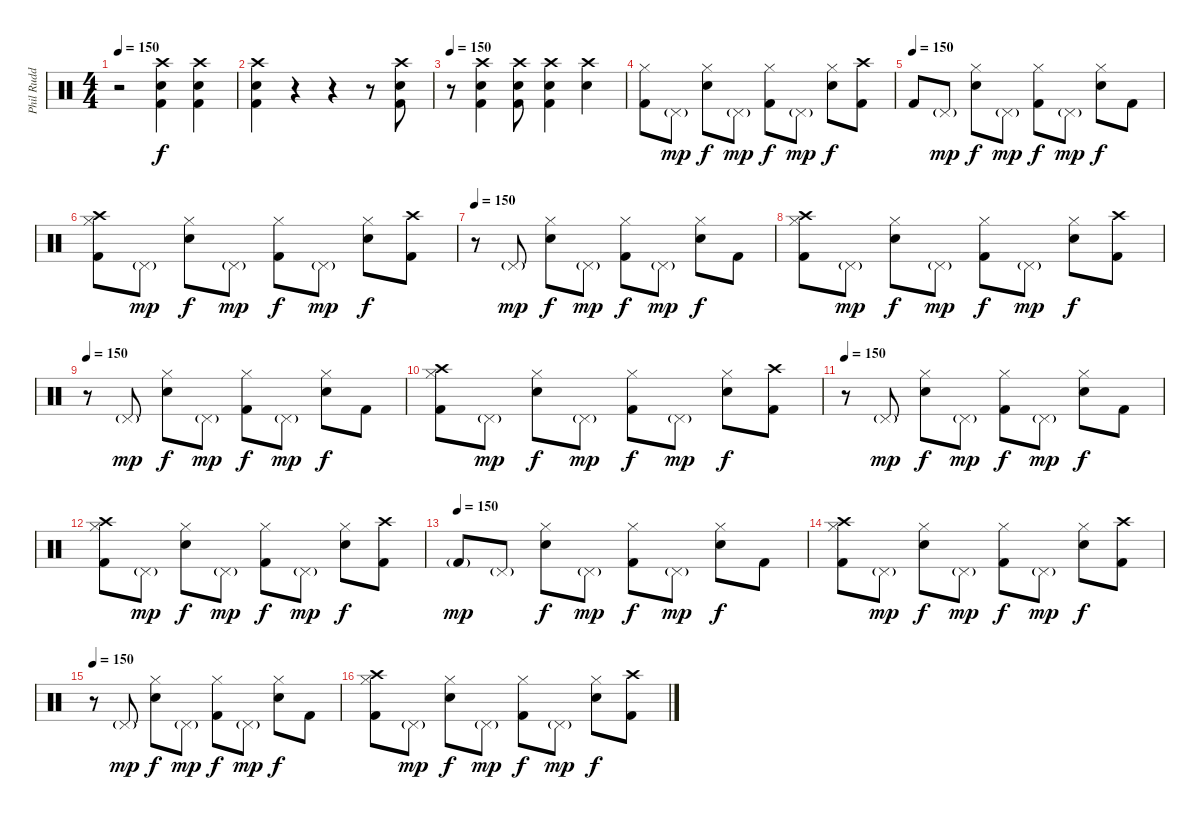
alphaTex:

\track ("Phil Rudd" "Phil Rudd") {instrument percussion}
\staff {score}
\articulation defaults
\ts (4 4)
\tempo 150
\clef neutral
\ks c
r.2{dy f} ("Crash high (hit)" "Snare (hit) 2" "Kick (hit) 2").4 ("Crash high (hit)" "Snare (hit) 2" "Kick (hit) 2").4 |
("Crash high (hit)" "Kick (hit) 2" "Snare (hit) 2").4 r.4 r.4 r.8 ("Kick (hit) 2" "Snare (hit) 2" "Crash high (hit)").8 |
\tempo 150
r.8 ("Crash high (hit)" "Snare (hit) 2" "Kick (hit) 2").4 ("Crash high (hit)" "Snare (hit) 2" "Kick (hit) 2").8 ("Crash high (hit)" "Snare (hit) 2" "Kick (hit) 2").4 ("Crash high (hit)" "Snare (hit) 2").4 |
("Kick (hit) 2" "Hi-Hat (closed)").8 "Pedal Hi-Hat (hit)"{g}.8{dy mp} ("Snare (hit) 2" "Hi-Hat (closed)").8{dy f} "Pedal Hi-Hat (hit)"{g}.8{dy mp} ("Kick (hit) 2" "Hi-Hat (closed)").8{dy f} "Pedal Hi-Hat (hit)"{g}.8{dy mp} ("Hi-Hat (closed)" "Snare (hit) 2").8{dy f} ("Crash high (hit)" "Kick (hit) 2").8 |
\tempo (150)
"Kick (hit) 2".8 "Pedal Hi-Hat (hit)"{g}.8{dy mp} ("Hi-Hat (closed)" "Snare (hit) 2").8{dy f} "Pedal Hi-Hat (hit)"{g}.8{dy mp} ("Hi-Hat (closed)" "Kick (hit) 2").8{dy f} "Pedal Hi-Hat (hit)"{g}.8{dy mp} ("Hi-Hat (closed)" "Snare (hit) 2").8{dy f} "Kick (hit) 2".8 |
("Crash high (hit)" "Kick (hit) 2" "Hi-Hat (closed)").8 "Pedal Hi-Hat (hit)"{g}.8{dy mp} ("Snare (hit) 2" "Hi-Hat (closed)").8{dy f} "Pedal Hi-Hat (hit)"{g}.8{dy mp} ("Kick (hit) 2" "Hi-Hat (closed)").8{dy f} "Pedal Hi-Hat (hit)"{g}.8{dy mp} ("Hi-Hat (closed)" "Snare (hit) 2").8{dy f} ("Crash high (hit)" "Kick (hit) 2").8 |
\tempo 150
r.8 "Pedal Hi-Hat (hit)"{g}.8{dy mp} ("Hi-Hat (closed)" "Snare (hit) 2").8{dy f} "Pedal Hi-Hat (hit)"{g}.8{dy mp} ("Hi-Hat (closed)" "Kick (hit) 2").8{dy f} "Pedal Hi-Hat (hit)"{g}.8{dy mp} ("Hi-Hat (closed)" "Snare (hit) 2").8{dy f} "Kick (hit) 2".8 |
("Crash high (hit)" "Kick (hit) 2" "Hi-Hat (closed)").8 "Pedal Hi-Hat (hit)"{g}.8{dy mp} ("Snare (hit) 2" "Hi-Hat (closed)").8{dy f} "Pedal Hi-Hat (hit)"{g}.8{dy mp} ("Kick (hit) 2" "Hi-Hat (closed)").8{dy f} "Pedal Hi-Hat (hit)"{g}.8{dy mp} ("Hi-Hat (closed)" "Snare (hit) 2").8{dy f} ("Crash high (hit)" "Kick (hit) 2").8 |
\tempo 150
r.8 "Pedal Hi-Hat (hit)"{g}.8{dy mp} ("Hi-Hat (closed)" "Snare (hit) 2").8{dy f} "Pedal Hi-Hat (hit)"{g}.8{dy mp} ("Hi-Hat (closed)" "Kick (hit) 2").8{dy f} "Pedal Hi-Hat (hit)"{g}.8{dy mp} ("Hi-Hat (closed)" "Snare (hit) 2").8{dy f} "Kick (hit) 2".8 |
("Crash high (hit)" "Kick (hit) 2" "Hi-Hat (closed)").8 "Pedal Hi-Hat (hit)"{g}.8{dy mp} ("Snare (hit) 2" "Hi-Hat (closed)").8{dy f} "Pedal Hi-Hat (hit)"{g}.8{dy mp} ("Kick (hit) 2" "Hi-Hat (closed)").8{dy f} "Pedal Hi-Hat (hit)"{g}.8{dy mp} ("Hi-Hat (closed)" "Snare (hit) 2").8{dy f} ("Crash high (hit)" "Kick (hit) 2").8 |
\tempo 150
r.8 "Pedal Hi-Hat (hit)"{g}.8{dy mp} ("Hi-Hat (closed)" "Snare (hit) 2").8{dy f} "Pedal Hi-Hat (hit)"{g}.8{dy mp} ("Hi-Hat (closed)" "Kick (hit) 2").8{dy f} "Pedal Hi-Hat (hit)"{g}.8{dy mp} ("Hi-Hat (closed)" "Snare (hit) 2").8{dy f} "Kick (hit) 2".8 |
("Crash high (hit)" "Kick (hit) 2" "Hi-Hat (closed)").8 "Pedal Hi-Hat (hit)"{g}.8{dy mp} ("Snare (hit) 2" "Hi-Hat (closed)").8{dy f} "Pedal Hi-Hat (hit)"{g}.8{dy mp} ("Kick (hit) 2" "Hi-Hat (closed)").8{dy f} "Pedal Hi-Hat (hit)"{g}.8{dy mp} ("Hi-Hat (closed)" "Snare (hit) 2").8{dy f} ("Crash high (hit)" "Kick (hit) 2").8 |
\tempo (150)
"Kick (hit) 2"{g}.8{dy mp} "Pedal Hi-Hat (hit)"{g}.8 ("Hi-Hat (closed)" "Snare (hit) 2").8{dy f} "Pedal Hi-Hat (hit)"{g}.8{dy mp} ("Hi-Hat (closed)" "Kick (hit) 2").8{dy f} "Pedal Hi-Hat (hit)"{g}.8{dy mp} ("Hi-Hat (closed)" "Snare (hit) 2").8{dy f} "Kick (hit) 2".8 |
("Crash high (hit)" "Kick (hit) 2" "Hi-Hat (closed)").8 "Pedal Hi-Hat (hit)"{g}.8{dy mp} ("Snare (hit) 2" "Hi-Hat (closed)").8{dy f} "Pedal Hi-Hat (hit)"{g}.8{dy mp} ("Kick (hit) 2" "Hi-Hat (closed)").8{dy f} "Pedal Hi-Hat (hit)"{g}.8{dy mp} ("Hi-Hat (closed)" "Snare (hit) 2").8{dy f} ("Crash high (hit)" "Kick (hit) 2").8 |
\tempo 150
r.8 "Pedal Hi-Hat (hit)"{g}.8{dy mp} ("Hi-Hat (closed)" "Snare (hit) 2").8{dy f} "Pedal Hi-Hat (hit)"{g}.8{dy mp} ("Hi-Hat (closed)" "Kick (hit) 2").8{dy f} "Pedal Hi-Hat (hit)"{g}.8{dy mp} ("Hi-Hat (closed)" "Snare (hit) 2").8{dy f} "Kick (hit) 2".8 |
("Crash high (hit)" "Kick (hit) 2" "Hi-Hat (closed)").8 "Pedal Hi-Hat (hit)"{g}.8{dy mp} ("Snare (hit) 2" "Hi-Hat (closed)").8{dy f} "Pedal Hi-Hat (hit)"{g}.8{dy mp} ("Kick (hit) 2" "Hi-Hat (closed)").8{dy f} "Pedal Hi-Hat (hit)"{g}.8{dy mp} ("Hi-Hat (closed)" "Snare (hit) 2").8{dy f} ("Crash high (hit)" "Kick (hit) 2").8
